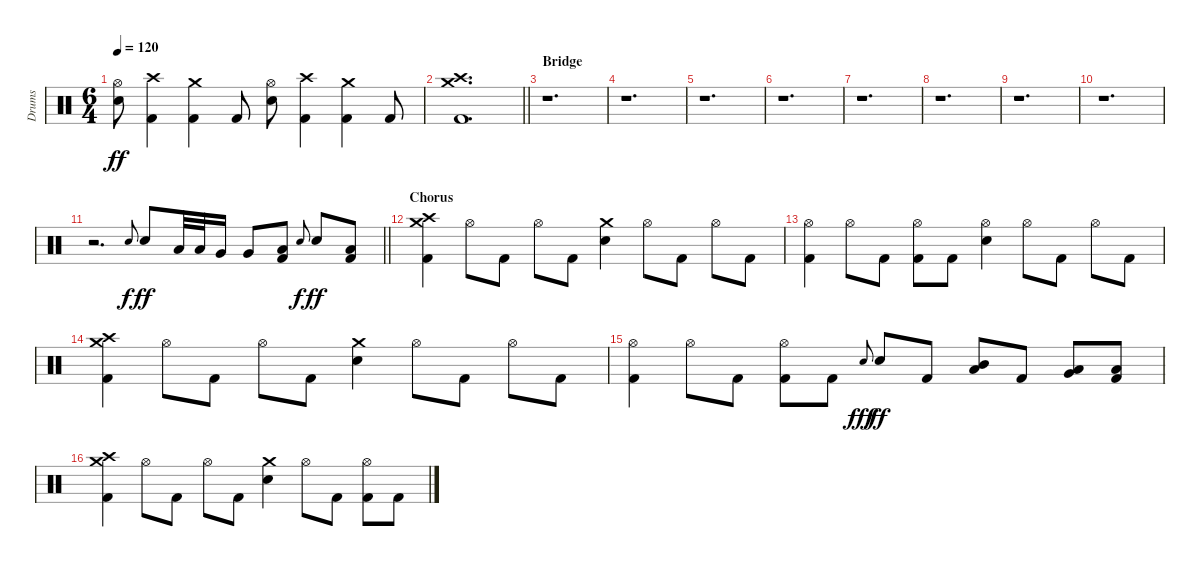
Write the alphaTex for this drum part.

\track ("Drums" "Drums") {instrument percussion}
\staff {score}
\articulation defaults
\ts (6 4)
\tempo 120
\clef neutral
\ks c
("Hi-Hat (open)" "Electric Snare (hit)").8{dy ff} ("Crash high (hit)" "Kick (hit) 2").4 ("Crash medium (hit)" "Kick (hit) 2").4 "Kick (hit) 2".8 ("Hi-Hat (open)" "Electric Snare (hit)").8 ("Crash high (hit)" "Kick (hit) 2").4 ("Crash medium (hit)" "Kick (hit) 2").4 "Kick (hit) 2".8 |
\barLineRight lightlight
("Crash medium (hit)" "Crash high (hit)" "Kick (hit) 2").1{d} |
\section ("" "Bridge")
r.1{d} |
r.1{d} |
r.1{d} |
r.1{d} |
r.1{d} |
r.1{d} |
r.1{d} |
r.1{d} |
\barLineRight lightlight
r.2{d volume 16} "Electric Snare (hit)".8{gr onbeat dy f} "Electric Snare (hit)".8{dy ff} "Low Tom (hit)".32 "Low Tom (hit)".32 "Very Low Tom (hit)".16 "Very Low Tom (hit)".8 ("Low Floor Tom (hit)" "Kick (hit) 2").8 "Electric Snare (hit)".8{gr onbeat dy f} "Electric Snare (hit)".8{dy ff} ("Low Floor Tom (hit)" "Kick (hit) 2").8 |
\section ("" "Chorus")
("Crash medium (hit)" "Crash high (hit)" "Kick (hit) 2").4{volume 10} "Hi-Hat (open)".8 "Kick (hit) 2".8 "Hi-Hat (open)".8 "Kick (hit) 2".8 ("Crash medium (hit)" "Electric Snare (hit)").4 "Hi-Hat (open)".8 "Kick (hit) 2".8 "Hi-Hat (open)".8 "Kick (hit) 2".8 |
("Hi-Hat (open)" "Kick (hit) 2").4 "Hi-Hat (open)".8 "Kick (hit) 2".8 ("Hi-Hat (open)" "Kick (hit) 2").8 "Kick (hit) 2".8 ("Hi-Hat (open)" "Electric Snare (hit)").4 "Hi-Hat (open)".8 "Kick (hit) 2".8 "Hi-Hat (open)".8 "Kick (hit) 2".8 |
("Crash medium (hit)" "Crash high (hit)" "Kick (hit) 2").4 "Hi-Hat (open)".8 "Kick (hit) 2".8 "Hi-Hat (open)".8 "Kick (hit) 2".8 ("Crash medium (hit)" "Electric Snare (hit)").4 "Hi-Hat (open)".8 "Kick (hit) 2".8 "Hi-Hat (open)".8 "Kick (hit) 2".8 |
("Hi-Hat (open)" "Kick (hit) 2").4 "Hi-Hat (open)".8 "Kick (hit) 2".8 ("Hi-Hat (open)" "Kick (hit) 2").8 "Kick (hit) 2".8 "Electric Snare (hit)".8{gr onbeat dy fff} "Electric Snare (hit)".8{dy ff} "Kick (hit) 2".8 ("Low Tom (hit)" "Mid Tom (hit)").8 "Kick (hit) 2".8 ("Very Low Tom (hit)" "Low Tom (hit)").8 ("Low Floor Tom (hit)" "Kick (hit) 2").8 |
("Crash medium (hit)" "Crash high (hit)" "Kick (hit) 2").4 "Hi-Hat (open)".8 "Kick (hit) 2".8 "Hi-Hat (open)".8 "Kick (hit) 2".8 ("Crash medium (hit)" "Electric Snare (hit)").4 "Hi-Hat (open)".8 "Kick (hit) 2".8 ("Hi-Hat (open)" "Kick (hit) 2").8 "Kick (hit) 2".8
